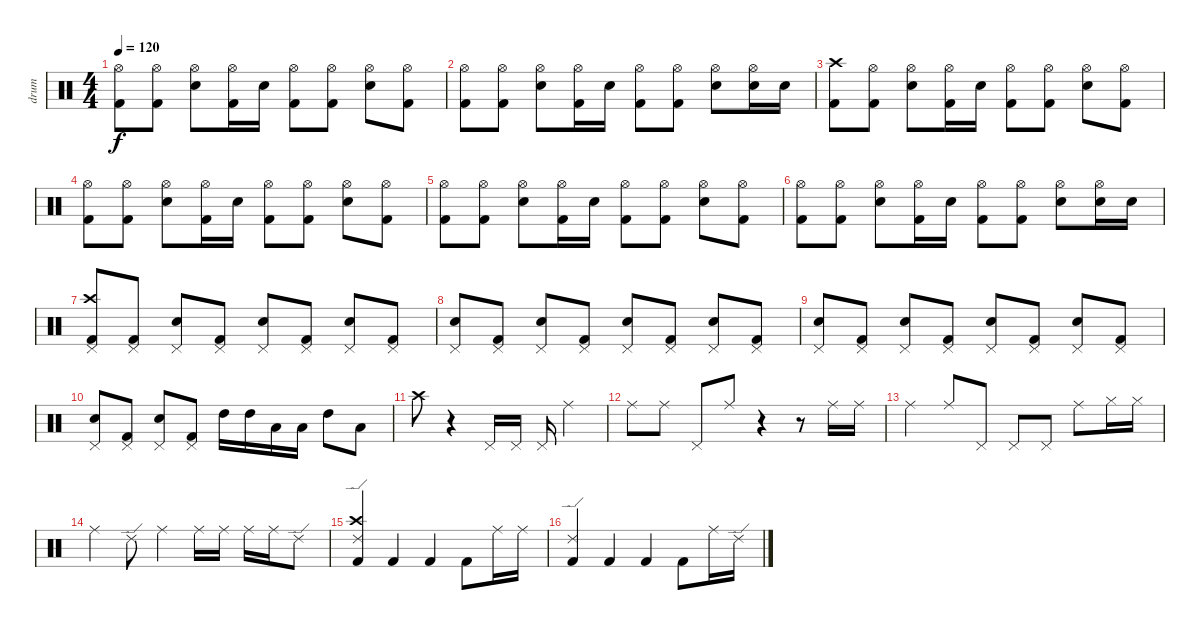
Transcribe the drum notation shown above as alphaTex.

\track ("drum" "drum") {instrument percussion}
\staff {score}
\articulation defaults
\ts (4 4)
\tempo 120
\clef neutral
\ks c
("Hi-Hat (open)" "Kick (hit) 2").8{dy f} ("Hi-Hat (open)" "Kick (hit) 2").8 ("Hi-Hat (open)" "Snare (hit) 2").8 ("Hi-Hat (open)" "Kick (hit) 2").16 "Snare (hit) 2".16 ("Hi-Hat (open)" "Kick (hit) 2").8 ("Hi-Hat (open)" "Kick (hit) 2").8 ("Hi-Hat (open)" "Snare (hit) 2").8 ("Hi-Hat (open)" "Kick (hit) 2").8 |
("Hi-Hat (open)" "Kick (hit) 2").8 ("Hi-Hat (open)" "Kick (hit) 2").8 ("Hi-Hat (open)" "Snare (hit) 2").8 ("Hi-Hat (open)" "Kick (hit) 2").16 "Snare (hit) 2".16 ("Hi-Hat (open)" "Kick (hit) 2").8 ("Hi-Hat (open)" "Kick (hit) 2").8 ("Hi-Hat (open)" "Snare (hit) 2").8 ("Hi-Hat (open)" "Snare (hit) 2").16 "Snare (hit) 2".16 |
("Crash high (hit)" "Kick (hit) 2").8 ("Hi-Hat (open)" "Kick (hit) 2").8 ("Hi-Hat (open)" "Snare (hit) 2").8 ("Hi-Hat (open)" "Kick (hit) 2").16 "Snare (hit) 2".16 ("Hi-Hat (open)" "Kick (hit) 2").8 ("Hi-Hat (open)" "Kick (hit) 2").8 ("Hi-Hat (open)" "Snare (hit) 2").8 ("Hi-Hat (open)" "Kick (hit) 2").8 |
("Hi-Hat (open)" "Kick (hit) 2").8 ("Hi-Hat (open)" "Kick (hit) 2").8 ("Hi-Hat (open)" "Snare (hit) 2").8 ("Hi-Hat (open)" "Kick (hit) 2").16 "Snare (hit) 2".16 ("Hi-Hat (open)" "Kick (hit) 2").8 ("Hi-Hat (open)" "Kick (hit) 2").8 ("Hi-Hat (open)" "Snare (hit) 2").8 ("Hi-Hat (open)" "Kick (hit) 2").8 |
("Hi-Hat (open)" "Kick (hit) 2").8 ("Hi-Hat (open)" "Kick (hit) 2").8 ("Hi-Hat (open)" "Snare (hit) 2").8 ("Hi-Hat (open)" "Kick (hit) 2").16 "Snare (hit) 2".16 ("Hi-Hat (open)" "Kick (hit) 2").8 ("Hi-Hat (open)" "Kick (hit) 2").8 ("Hi-Hat (open)" "Snare (hit) 2").8 ("Hi-Hat (open)" "Kick (hit) 2").8 |
("Hi-Hat (open)" "Kick (hit) 2").8 ("Hi-Hat (open)" "Kick (hit) 2").8 ("Hi-Hat (open)" "Snare (hit) 2").8 ("Hi-Hat (open)" "Kick (hit) 2").16 "Snare (hit) 2".16 ("Hi-Hat (open)" "Kick (hit) 2").8 ("Hi-Hat (open)" "Kick (hit) 2").8 ("Hi-Hat (open)" "Snare (hit) 2").8 ("Hi-Hat (open)" "Snare (hit) 2").16 "Snare (hit) 2".16 |
("Crash high (hit)" "Pedal Hi-Hat (hit)" "Kick (hit) 2").8 ("Pedal Hi-Hat (hit)" "Kick (hit) 2").8 ("Pedal Hi-Hat (hit)" "Snare (hit) 2").8 ("Pedal Hi-Hat (hit)" "Kick (hit) 2").8 ("Pedal Hi-Hat (hit)" "Snare (hit) 2").8 ("Pedal Hi-Hat (hit)" "Kick (hit) 2").8 ("Pedal Hi-Hat (hit)" "Snare (hit) 2").8 ("Pedal Hi-Hat (hit)" "Kick (hit) 2").8 |
("Pedal Hi-Hat (hit)" "Snare (hit) 2").8 ("Pedal Hi-Hat (hit)" "Kick (hit) 2").8 ("Pedal Hi-Hat (hit)" "Snare (hit) 2").8 ("Pedal Hi-Hat (hit)" "Kick (hit) 2").8 ("Pedal Hi-Hat (hit)" "Snare (hit) 2").8 ("Pedal Hi-Hat (hit)" "Kick (hit) 2").8 ("Pedal Hi-Hat (hit)" "Snare (hit) 2").8 ("Pedal Hi-Hat (hit)" "Kick (hit) 2").8 |
("Pedal Hi-Hat (hit)" "Snare (hit) 2").8 ("Pedal Hi-Hat (hit)" "Kick (hit) 2").8 ("Pedal Hi-Hat (hit)" "Snare (hit) 2").8 ("Pedal Hi-Hat (hit)" "Kick (hit) 2").8 ("Pedal Hi-Hat (hit)" "Snare (hit) 2").8 ("Pedal Hi-Hat (hit)" "Kick (hit) 2").8 ("Pedal Hi-Hat (hit)" "Snare (hit) 2").8 ("Pedal Hi-Hat (hit)" "Kick (hit) 2").8 |
("Pedal Hi-Hat (hit)" "Snare (hit) 2").8 ("Pedal Hi-Hat (hit)" "Kick (hit) 2").8 ("Pedal Hi-Hat (hit)" "Snare (hit) 2").8 ("Pedal Hi-Hat (hit)" "Kick (hit) 2").8 "High Tom (hit)".16 "High Tom (hit)".16 "Low Tom (hit)".16 "Low Tom (hit)".16 "High Tom (hit)".8 "Low Tom (hit)".8 |
"Crash high (hit)".8 r.4 "Pedal Hi-Hat (hit)".16 "Pedal Hi-Hat (hit)".16 "Pedal Hi-Hat (hit)".16 "Ride (middle)".4 |
"Ride (middle)".8 "Ride (middle)".8 "Pedal Hi-Hat (hit)".8 "Ride (middle)".8 r.4 r.8 "Ride (middle)".16 "Ride (middle)".16 |
"Ride (middle)".4 "Ride (middle)".8 "Pedal Hi-Hat (hit)".8 "Pedal Hi-Hat (hit)".8 "Pedal Hi-Hat (hit)".8 "Ride (middle)".8 "Hi-Hat (closed)".16 "Hi-Hat (closed)".16 |
"Ride (middle)".4 "Ride (edge) 2".8 "Ride (middle)".4 "Ride (middle)".16 "Ride (middle)".16 "Ride (middle)".16 "Ride (middle)".16 "Ride (edge) 2".8 |
("Crash high (hit)" "Ride (edge) 2" "Kick (hit) 2").4 "Kick (hit) 2".4 "Kick (hit) 2".4 "Kick (hit) 2".8 "Ride (middle)".16 "Ride (middle)".16 |
("Ride (edge) 2" "Kick (hit) 2").4 "Kick (hit) 2".4 "Kick (hit) 2".4 "Kick (hit) 2".8 "Ride (middle)".16 "Ride (edge) 2".16
